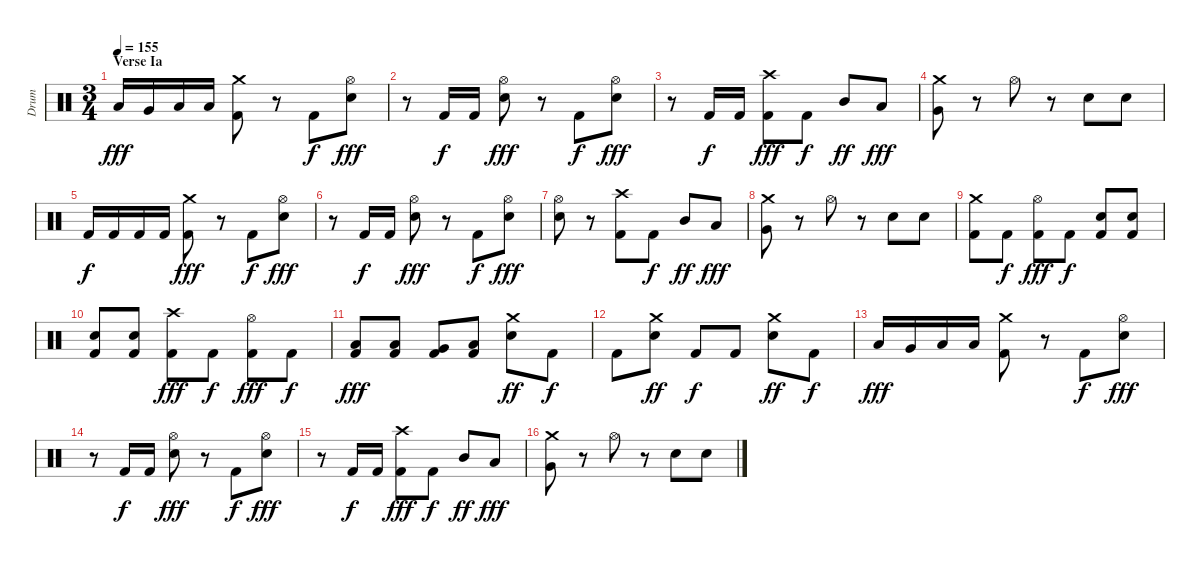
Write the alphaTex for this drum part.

\track ("Drum" "Drum") {instrument percussion}
\staff {score}
\articulation defaults
\ts (3 4)
\section ("" "Verse Ia")
\tempo 155
\clef neutral
\ks c "Low Tom (hit)".16{dy fff} "Very Low Tom (hit)".16 "Low Floor Tom (hit)".16 "Low Floor Tom (hit)".16
("Crash medium (hit)" "Kick (hit) 2").8 r.8 "Kick (hit) 2".8{dy f} ("Hi-Hat (open)" "Snare (hit) 2").8{dy fff} |
r.8 "Kick (hit) 2".16{dy f} "Kick (hit) 2".16 ("Hi-Hat (open)" "Snare (hit) 2").8{dy fff} r.8 "Kick (hit) 2".8{dy f} ("Hi-Hat (open)" "Snare (hit) 2").8{dy fff} |
r.8 "Kick (hit) 2".16{dy f} "Kick (hit) 2".16 ("Crash high (hit)" "Kick (hit) 2").8{dy fff} "Kick (hit) 2".8{dy f} "Mid Tom (hit)".8{dy ff} "Low Tom (hit)".8{dy fff} |
("Crash medium (hit)" "Very Low Tom (hit)").8 r.8 "Hi-Hat (open)".8 r.8 "Snare (hit) 2".8 "Snare (hit) 2".8 |
"Kick (hit) 2".16{dy f} "Kick (hit) 2".16 "Kick (hit) 2".16 "Kick (hit) 2".16 ("Crash medium (hit)" "Kick (hit) 2").8{dy fff} r.8 "Kick (hit) 2".8{dy f} ("Hi-Hat (open)" "Snare (hit) 2").8{dy fff} |
r.8 "Kick (hit) 2".16{dy f} "Kick (hit) 2".16 ("Hi-Hat (open)" "Snare (hit) 2").8{dy fff} r.8 "Kick (hit) 2".8{dy f} ("Hi-Hat (open)" "Snare (hit) 2").8{dy fff} |
("Hi-Hat (open)" "Snare (hit) 2").8 r.8 ("Crash high (hit)" "Kick (hit) 2").8 "Kick (hit) 2".8{dy f} "Mid Tom (hit)".8{dy ff} "Low Tom (hit)".8{dy fff} |
("Crash medium (hit)" "Very Low Tom (hit)").8 r.8 "Hi-Hat (open)".8 r.8 "Snare (hit) 2".8 "Snare (hit) 2".8 |
("Crash medium (hit)" "Kick (hit) 2").8 "Kick (hit) 2".8{dy f} ("Hi-Hat (open)" "Kick (hit) 2").8{dy fff} "Kick (hit) 2".8{dy f} ("Snare (hit) 2" "Kick (hit) 2").8 ("Snare (hit) 2" "Kick (hit) 2").8 |
("Snare (hit) 2" "Kick (hit) 2").8 ("Snare (hit) 2" "Kick (hit) 2").8 ("Crash high (hit)" "Kick (hit) 2").8{dy fff} "Kick (hit) 2".8{dy f} ("Hi-Hat (open)" "Kick (hit) 2").8{dy fff} "Kick (hit) 2".8{dy f} |
("Low Floor Tom (hit)" "Kick (hit) 2").8{dy fff} ("Low Floor Tom (hit)" "Kick (hit) 2").8 ("Very Low Tom (hit)" "Kick (hit) 2").8 ("Low Tom (hit)" "Kick (hit) 2").8 ("Crash medium (hit)" "Snare (hit) 2").8{dy ff} "Kick (hit) 2".8{dy f} |
"Kick (hit) 2".8 ("Crash medium (hit)" "Snare (hit) 2").8{dy ff} "Kick (hit) 2".8{dy f} "Kick (hit) 2".8 ("Crash medium (hit)" "Snare (hit) 2").8{dy ff} "Kick (hit) 2".8{dy f} |
"Low Tom (hit)".16{dy fff} "Very Low Tom (hit)".16 "Low Floor Tom (hit)".16 "Low Floor Tom (hit)".16 ("Crash medium (hit)" "Kick (hit) 2").8 r.8 "Kick (hit) 2".8{dy f} ("Hi-Hat (open)" "Snare (hit) 2").8{dy fff} |
r.8 "Kick (hit) 2".16{dy f} "Kick (hit) 2".16 ("Hi-Hat (open)" "Snare (hit) 2").8{dy fff} r.8 "Kick (hit) 2".8{dy f} ("Hi-Hat (open)" "Snare (hit) 2").8{dy fff} |
r.8 "Kick (hit) 2".16{dy f} "Kick (hit) 2".16 ("Crash high (hit)" "Kick (hit) 2").8{dy fff} "Kick (hit) 2".8{dy f} "Mid Tom (hit)".8{dy ff} "Low Tom (hit)".8{dy fff} |
("Crash medium (hit)" "Very Low Tom (hit)").8 r.8 "Hi-Hat (open)".8 r.8 "Snare (hit) 2".8 "Snare (hit) 2".8
